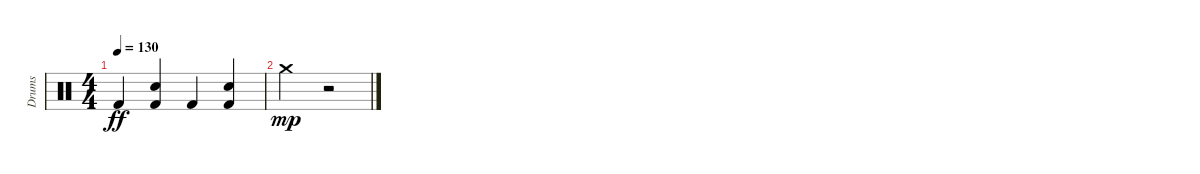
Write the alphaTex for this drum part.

\track ("Drums" "Drums") {instrument percussion}
\staff {score}
\articulation defaults
\ts (4 4)
\tempo 130
\clef neutral
\ks c "Kick (hit) 2".4{dy ff}
("Electric Snare (hit)" "Kick (hit) 2").4 "Kick (hit) 2".4 ("Electric Snare (hit)" "Kick (hit) 2").4 |
"Crash medium (hit)".2{dy mp} r.2
